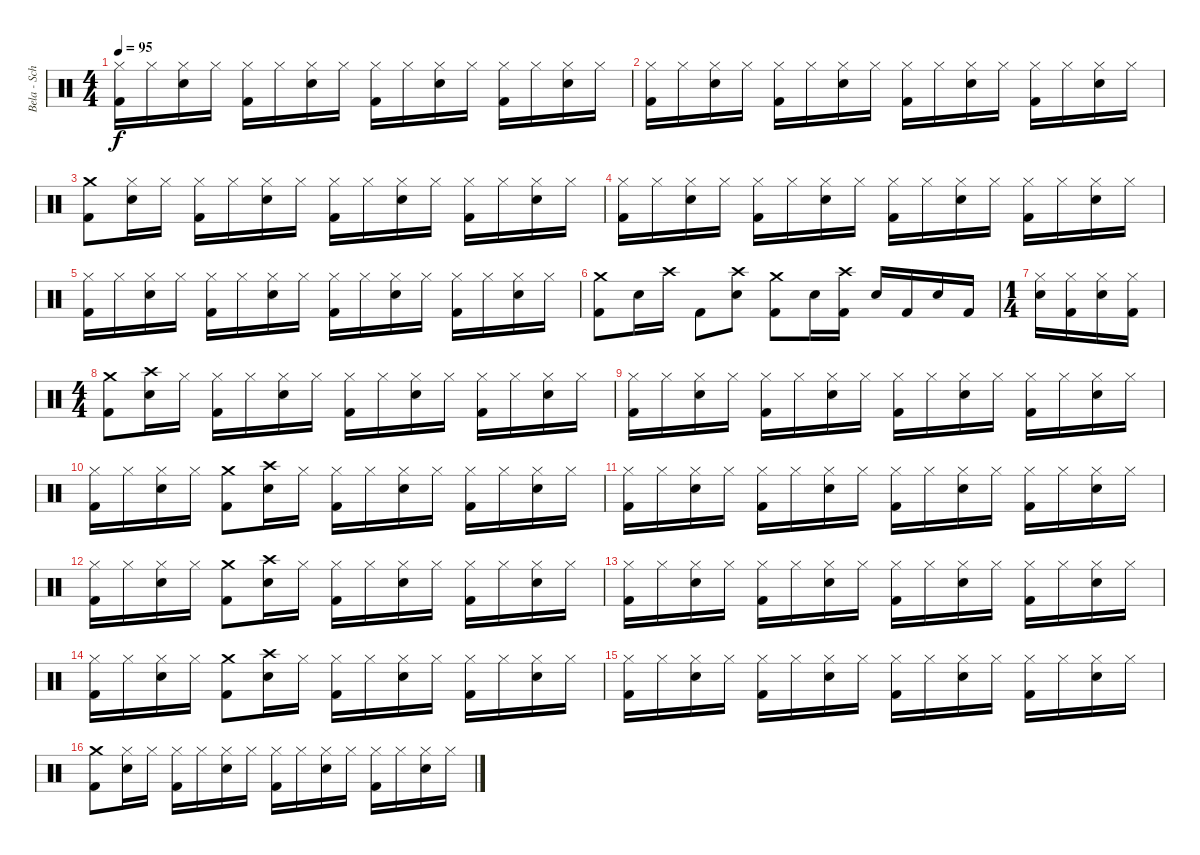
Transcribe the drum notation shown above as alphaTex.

\track ("Bela - Schlagzeug" "Bela - Sch") {instrument percussion}
\staff {score}
\articulation defaults
\ts (4 4)
\tempo 95
\clef neutral
\ks c
("Hi-Hat (closed)" "Kick (hit) 2").16{dy f} "Hi-Hat (closed)".16 ("Hi-Hat (closed)" "Snare (hit) 2").16 "Hi-Hat (closed)".16 ("Hi-Hat (closed)" "Kick (hit) 2").16 "Hi-Hat (closed)".16 ("Hi-Hat (closed)" "Snare (hit) 2").16 "Hi-Hat (closed)".16 ("Hi-Hat (closed)" "Kick (hit) 2").16 "Hi-Hat (closed)".16 ("Hi-Hat (closed)" "Snare (hit) 2").16 "Hi-Hat (closed)".16 ("Hi-Hat (closed)" "Kick (hit) 2").16 "Hi-Hat (closed)".16 ("Hi-Hat (closed)" "Snare (hit) 2").16 "Hi-Hat (closed)".16 |
("Hi-Hat (closed)" "Kick (hit) 2").16 "Hi-Hat (closed)".16 ("Hi-Hat (closed)" "Snare (hit) 2").16 "Hi-Hat (closed)".16 ("Hi-Hat (closed)" "Kick (hit) 2").16 "Hi-Hat (closed)".16 ("Hi-Hat (closed)" "Snare (hit) 2").16 "Hi-Hat (closed)".16 ("Hi-Hat (closed)" "Kick (hit) 2").16 "Hi-Hat (closed)".16 ("Hi-Hat (closed)" "Snare (hit) 2").16 "Hi-Hat (closed)".16 ("Hi-Hat (closed)" "Kick (hit) 2").16 "Hi-Hat (closed)".16 ("Hi-Hat (closed)" "Snare (hit) 2").16 "Hi-Hat (closed)".16 |
("Crash medium (hit)" "Kick (hit) 2").8 ("Hi-Hat (closed)" "Snare (hit) 2").16 "Hi-Hat (closed)".16 ("Hi-Hat (closed)" "Kick (hit) 2").16 "Hi-Hat (closed)".16 ("Hi-Hat (closed)" "Snare (hit) 2").16 "Hi-Hat (closed)".16 ("Hi-Hat (closed)" "Kick (hit) 2").16 "Hi-Hat (closed)".16 ("Hi-Hat (closed)" "Snare (hit) 2").16 "Hi-Hat (closed)".16 ("Hi-Hat (closed)" "Kick (hit) 2").16 "Hi-Hat (closed)".16 ("Hi-Hat (closed)" "Snare (hit) 2").16 "Hi-Hat (closed)".16 |
("Hi-Hat (closed)" "Kick (hit) 2").16 "Hi-Hat (closed)".16 ("Hi-Hat (closed)" "Snare (hit) 2").16 "Hi-Hat (closed)".16 ("Hi-Hat (closed)" "Kick (hit) 2").16 "Hi-Hat (closed)".16 ("Hi-Hat (closed)" "Snare (hit) 2").16 "Hi-Hat (closed)".16 ("Hi-Hat (closed)" "Kick (hit) 2").16 "Hi-Hat (closed)".16 ("Hi-Hat (closed)" "Snare (hit) 2").16 "Hi-Hat (closed)".16 ("Hi-Hat (closed)" "Kick (hit) 2").16 "Hi-Hat (closed)".16 ("Hi-Hat (closed)" "Snare (hit) 2").16 "Hi-Hat (closed)".16 |
("Hi-Hat (closed)" "Kick (hit) 2").16 "Hi-Hat (closed)".16 ("Hi-Hat (closed)" "Snare (hit) 2").16 "Hi-Hat (closed)".16 ("Hi-Hat (closed)" "Kick (hit) 2").16 "Hi-Hat (closed)".16 ("Hi-Hat (closed)" "Snare (hit) 2").16 "Hi-Hat (closed)".16 ("Hi-Hat (closed)" "Kick (hit) 2").16 "Hi-Hat (closed)".16 ("Hi-Hat (closed)" "Snare (hit) 2").16 "Hi-Hat (closed)".16 ("Hi-Hat (closed)" "Kick (hit) 2").16 "Hi-Hat (closed)".16 ("Hi-Hat (closed)" "Snare (hit) 2").16 "Hi-Hat (closed)".16 |
("Crash medium (hit)" "Kick (hit) 2").8 "Snare (hit) 2".16 "Crash high (hit)".16 "Kick (hit) 2".8 ("Crash high (hit)" "Snare (hit) 2").8 ("Crash medium (hit)" "Kick (hit) 2").8 "Snare (hit) 2".16 ("Crash high (hit)" "Kick (hit) 2").16 "Snare (hit) 2".16 "Kick (hit) 2".16 "Snare (hit) 2".16 "Kick (hit) 2".16 |
\ts (1 4)
("Hi-Hat (closed)" "Snare (hit) 2").16 ("Hi-Hat (closed)" "Kick (hit) 2").16 ("Hi-Hat (closed)" "Snare (hit) 2").16 ("Hi-Hat (closed)" "Kick (hit) 2").16 |
\ts (4 4)
("Crash medium (hit)" "Kick (hit) 2").8 ("Crash high (hit)" "Snare (hit) 2").16 "Hi-Hat (closed)".16 ("Hi-Hat (closed)" "Kick (hit) 2").16 "Hi-Hat (closed)".16 ("Hi-Hat (closed)" "Snare (hit) 2").16 "Hi-Hat (closed)".16 ("Hi-Hat (closed)" "Kick (hit) 2").16 "Hi-Hat (closed)".16 ("Hi-Hat (closed)" "Snare (hit) 2").16 "Hi-Hat (closed)".16 ("Hi-Hat (closed)" "Kick (hit) 2").16 "Hi-Hat (closed)".16 ("Hi-Hat (closed)" "Snare (hit) 2").16 "Hi-Hat (closed)".16 |
("Hi-Hat (closed)" "Kick (hit) 2").16 "Hi-Hat (closed)".16 ("Hi-Hat (closed)" "Snare (hit) 2").16 "Hi-Hat (closed)".16 ("Hi-Hat (closed)" "Kick (hit) 2").16 "Hi-Hat (closed)".16 ("Hi-Hat (closed)" "Snare (hit) 2").16 "Hi-Hat (closed)".16 ("Hi-Hat (closed)" "Kick (hit) 2").16 "Hi-Hat (closed)".16 ("Hi-Hat (closed)" "Snare (hit) 2").16 "Hi-Hat (closed)".16 ("Hi-Hat (closed)" "Kick (hit) 2").16 "Hi-Hat (closed)".16 ("Hi-Hat (closed)" "Snare (hit) 2").16 "Hi-Hat (closed)".16 |
("Hi-Hat (closed)" "Kick (hit) 2").16 "Hi-Hat (closed)".16 ("Hi-Hat (closed)" "Snare (hit) 2").16 "Hi-Hat (closed)".16 ("Crash medium (hit)" "Kick (hit) 2").8 ("Crash high (hit)" "Snare (hit) 2").16 "Hi-Hat (closed)".16 ("Hi-Hat (closed)" "Kick (hit) 2").16 "Hi-Hat (closed)".16 ("Hi-Hat (closed)" "Snare (hit) 2").16 "Hi-Hat (closed)".16 ("Hi-Hat (closed)" "Kick (hit) 2").16 "Hi-Hat (closed)".16 ("Hi-Hat (closed)" "Snare (hit) 2").16 "Hi-Hat (closed)".16 |
("Hi-Hat (closed)" "Kick (hit) 2").16 "Hi-Hat (closed)".16 ("Hi-Hat (closed)" "Snare (hit) 2").16 "Hi-Hat (closed)".16 ("Hi-Hat (closed)" "Kick (hit) 2").16 "Hi-Hat (closed)".16 ("Hi-Hat (closed)" "Snare (hit) 2").16 "Hi-Hat (closed)".16 ("Hi-Hat (closed)" "Kick (hit) 2").16 "Hi-Hat (closed)".16 ("Hi-Hat (closed)" "Snare (hit) 2").16 "Hi-Hat (closed)".16 ("Hi-Hat (closed)" "Kick (hit) 2").16 "Hi-Hat (closed)".16 ("Hi-Hat (closed)" "Snare (hit) 2").16 "Hi-Hat (closed)".16 |
("Hi-Hat (closed)" "Kick (hit) 2").16 "Hi-Hat (closed)".16 ("Hi-Hat (closed)" "Snare (hit) 2").16 "Hi-Hat (closed)".16 ("Crash medium (hit)" "Kick (hit) 2").8 ("Crash high (hit)" "Snare (hit) 2").16 "Hi-Hat (closed)".16 ("Hi-Hat (closed)" "Kick (hit) 2").16 "Hi-Hat (closed)".16 ("Hi-Hat (closed)" "Snare (hit) 2").16 "Hi-Hat (closed)".16 ("Hi-Hat (closed)" "Kick (hit) 2").16 "Hi-Hat (closed)".16 ("Hi-Hat (closed)" "Snare (hit) 2").16 "Hi-Hat (closed)".16 |
("Hi-Hat (closed)" "Kick (hit) 2").16 "Hi-Hat (closed)".16 ("Hi-Hat (closed)" "Snare (hit) 2").16 "Hi-Hat (closed)".16 ("Hi-Hat (closed)" "Kick (hit) 2").16 "Hi-Hat (closed)".16 ("Hi-Hat (closed)" "Snare (hit) 2").16 "Hi-Hat (closed)".16 ("Hi-Hat (closed)" "Kick (hit) 2").16 "Hi-Hat (closed)".16 ("Hi-Hat (closed)" "Snare (hit) 2").16 "Hi-Hat (closed)".16 ("Hi-Hat (closed)" "Kick (hit) 2").16 "Hi-Hat (closed)".16 ("Hi-Hat (closed)" "Snare (hit) 2").16 "Hi-Hat (closed)".16 |
("Hi-Hat (closed)" "Kick (hit) 2").16 "Hi-Hat (closed)".16 ("Hi-Hat (closed)" "Snare (hit) 2").16 "Hi-Hat (closed)".16 ("Crash medium (hit)" "Kick (hit) 2").8 ("Crash high (hit)" "Snare (hit) 2").16 "Hi-Hat (closed)".16 ("Hi-Hat (closed)" "Kick (hit) 2").16 "Hi-Hat (closed)".16 ("Hi-Hat (closed)" "Snare (hit) 2").16 "Hi-Hat (closed)".16 ("Hi-Hat (closed)" "Kick (hit) 2").16 "Hi-Hat (closed)".16 ("Hi-Hat (closed)" "Snare (hit) 2").16 "Hi-Hat (closed)".16 |
("Hi-Hat (closed)" "Kick (hit) 2").16 "Hi-Hat (closed)".16 ("Hi-Hat (closed)" "Snare (hit) 2").16 "Hi-Hat (closed)".16 ("Hi-Hat (closed)" "Kick (hit) 2").16 "Hi-Hat (closed)".16 ("Hi-Hat (closed)" "Snare (hit) 2").16 "Hi-Hat (closed)".16 ("Hi-Hat (closed)" "Kick (hit) 2").16 "Hi-Hat (closed)".16 ("Hi-Hat (closed)" "Snare (hit) 2").16 "Hi-Hat (closed)".16 ("Hi-Hat (closed)" "Kick (hit) 2").16 "Hi-Hat (closed)".16 ("Hi-Hat (closed)" "Snare (hit) 2").16 "Hi-Hat (closed)".16 |
("Crash medium (hit)" "Kick (hit) 2").8 ("Hi-Hat (closed)" "Snare (hit) 2").16 "Hi-Hat (closed)".16 ("Hi-Hat (closed)" "Kick (hit) 2").16 "Hi-Hat (closed)".16 ("Hi-Hat (closed)" "Snare (hit) 2").16 "Hi-Hat (closed)".16 ("Hi-Hat (closed)" "Kick (hit) 2").16 "Hi-Hat (closed)".16 ("Hi-Hat (closed)" "Snare (hit) 2").16 "Hi-Hat (closed)".16 ("Hi-Hat (closed)" "Kick (hit) 2").16 "Hi-Hat (closed)".16 ("Hi-Hat (closed)" "Snare (hit) 2").16 "Hi-Hat (closed)".16
